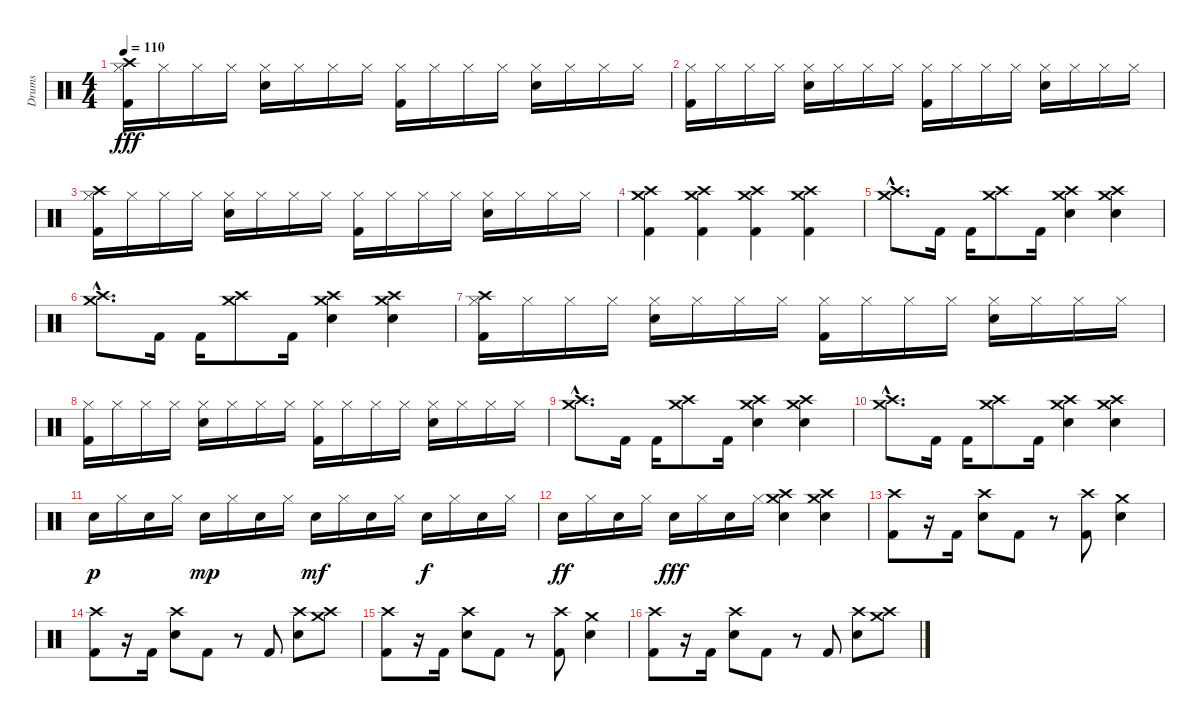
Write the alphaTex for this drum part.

\track ("Drums" "Drums") {instrument percussion}
\staff {score}
\articulation defaults
\ts (4 4)
\tempo 110
\clef neutral
\ks c
("Crash high (hit)" "Hi-Hat (closed)" "Kick (hit) 2").16{dy fff} "Hi-Hat (closed)".16 "Hi-Hat (closed)".16 "Hi-Hat (closed)".16 ("Hi-Hat (closed)" "Electric Snare (hit)").16 "Hi-Hat (closed)".16 "Hi-Hat (closed)".16 "Hi-Hat (closed)".16 ("Hi-Hat (closed)" "Kick (hit) 2").16 "Hi-Hat (closed)".16 "Hi-Hat (closed)".16 "Hi-Hat (closed)".16 ("Hi-Hat (closed)" "Electric Snare (hit)").16 "Hi-Hat (closed)".16 "Hi-Hat (closed)".16 "Hi-Hat (closed)".16 |
("Hi-Hat (closed)" "Kick (hit) 2").16 "Hi-Hat (closed)".16 "Hi-Hat (closed)".16 "Hi-Hat (closed)".16 ("Hi-Hat (closed)" "Electric Snare (hit)").16 "Hi-Hat (closed)".16 "Hi-Hat (closed)".16 "Hi-Hat (closed)".16 ("Hi-Hat (closed)" "Kick (hit) 2").16 "Hi-Hat (closed)".16 "Hi-Hat (closed)".16 "Hi-Hat (closed)".16 ("Hi-Hat (closed)" "Electric Snare (hit)").16 "Hi-Hat (closed)".16 "Hi-Hat (closed)".16 "Hi-Hat (closed)".16 |
("Crash high (hit)" "Hi-Hat (closed)" "Kick (hit) 2").16 "Hi-Hat (closed)".16 "Hi-Hat (closed)".16 "Hi-Hat (closed)".16 ("Hi-Hat (closed)" "Electric Snare (hit)").16 "Hi-Hat (closed)".16 "Hi-Hat (closed)".16 "Hi-Hat (closed)".16 ("Hi-Hat (closed)" "Kick (hit) 2").16 "Hi-Hat (closed)".16 "Hi-Hat (closed)".16 "Hi-Hat (closed)".16 ("Hi-Hat (closed)" "Electric Snare (hit)").16 "Hi-Hat (closed)".16 "Hi-Hat (closed)".16 "Hi-Hat (closed)".16 |
("Crash high (hit)" "Crash medium (hit)" "Kick (hit) 2").4 ("Crash high (hit)" "Crash medium (hit)" "Kick (hit) 2").4 ("Crash high (hit)" "Crash medium (hit)" "Kick (hit) 2").4 ("Crash high (hit)" "Crash medium (hit)" "Kick (hit) 2").4 |
("Crash high (hit)"{hac} "Crash medium (hit)"{hac}).8{d} "Kick (hit) 2".16 "Kick (hit) 2".16 ("Crash high (hit)" "Crash medium (hit)").8 "Kick (hit) 2".16 ("Crash high (hit)" "Crash medium (hit)" "Electric Snare (hit)").4 ("Crash high (hit)" "Crash medium (hit)" "Electric Snare (hit)").4 |
("Crash high (hit)"{hac} "Crash medium (hit)"{hac}).8{d} "Kick (hit) 2".16 "Kick (hit) 2".16 ("Crash high (hit)" "Crash medium (hit)").8 "Kick (hit) 2".16 ("Crash high (hit)" "Crash medium (hit)" "Electric Snare (hit)").4 ("Crash high (hit)" "Crash medium (hit)" "Electric Snare (hit)").4 |
("Crash high (hit)" "Hi-Hat (closed)" "Kick (hit) 2").16 "Hi-Hat (closed)".16 "Hi-Hat (closed)".16 "Hi-Hat (closed)".16 ("Hi-Hat (closed)" "Electric Snare (hit)").16 "Hi-Hat (closed)".16 "Hi-Hat (closed)".16 "Hi-Hat (closed)".16 ("Hi-Hat (closed)" "Kick (hit) 2").16 "Hi-Hat (closed)".16 "Hi-Hat (closed)".16 "Hi-Hat (closed)".16 ("Hi-Hat (closed)" "Electric Snare (hit)").16 "Hi-Hat (closed)".16 "Hi-Hat (closed)".16 "Hi-Hat (closed)".16 |
("Hi-Hat (closed)" "Kick (hit) 2").16 "Hi-Hat (closed)".16 "Hi-Hat (closed)".16 "Hi-Hat (closed)".16 ("Hi-Hat (closed)" "Electric Snare (hit)").16 "Hi-Hat (closed)".16 "Hi-Hat (closed)".16 "Hi-Hat (closed)".16 ("Hi-Hat (closed)" "Kick (hit) 2").16 "Hi-Hat (closed)".16 "Hi-Hat (closed)".16 "Hi-Hat (closed)".16 ("Hi-Hat (closed)" "Electric Snare (hit)").16 "Hi-Hat (closed)".16 "Hi-Hat (closed)".16 "Hi-Hat (closed)".16 |
("Crash high (hit)"{hac} "Crash medium (hit)"{hac}).8{d} "Kick (hit) 2".16 "Kick (hit) 2".16 ("Crash high (hit)" "Crash medium (hit)").8 "Kick (hit) 2".16 ("Crash high (hit)" "Crash medium (hit)" "Electric Snare (hit)").4 ("Crash high (hit)" "Crash medium (hit)" "Electric Snare (hit)").4 |
("Crash high (hit)"{hac} "Crash medium (hit)"{hac}).8{d} "Kick (hit) 2".16 "Kick (hit) 2".16 ("Crash high (hit)" "Crash medium (hit)").8 "Kick (hit) 2".16 ("Crash high (hit)" "Crash medium (hit)" "Electric Snare (hit)").4 ("Crash high (hit)" "Crash medium (hit)" "Electric Snare (hit)").4 |
"Electric Snare (hit)".16{dy p} "Hi-Hat (closed)".16 "Electric Snare (hit)".16 "Hi-Hat (closed)".16 "Electric Snare (hit)".16{dy mp} "Hi-Hat (closed)".16 "Electric Snare (hit)".16 "Hi-Hat (closed)".16 "Electric Snare (hit)".16{dy mf} "Hi-Hat (closed)".16 "Electric Snare (hit)".16 "Hi-Hat (closed)".16 "Electric Snare (hit)".16{dy f} "Hi-Hat (closed)".16 "Electric Snare (hit)".16 "Hi-Hat (closed)".16 |
"Electric Snare (hit)".16{dy ff} "Hi-Hat (closed)".16 "Electric Snare (hit)".16 "Hi-Hat (closed)".16 "Electric Snare (hit)".16{dy fff} "Hi-Hat (closed)".16 "Electric Snare (hit)".16 "Hi-Hat (closed)".16 ("Crash high (hit)" "Crash medium (hit)" "Electric Snare (hit)").4 ("Crash high (hit)" "Crash medium (hit)" "Electric Snare (hit)").4 |
("Crash high (hit)" "Kick (hit) 2").8 r.16 "Kick (hit) 2".16 ("Crash high (hit)" "Electric Snare (hit)").8 "Kick (hit) 2".8 r.8 ("Crash high (hit)" "Kick (hit) 2").8 ("Crash medium (hit)" "Electric Snare (hit)").4 |
("Crash high (hit)" "Kick (hit) 2").8 r.16 "Kick (hit) 2".16 ("Crash high (hit)" "Electric Snare (hit)").8 "Kick (hit) 2".8 r.8 "Kick (hit) 2".8 ("Crash high (hit)" "Electric Snare (hit)").8 ("Crash high (hit)" "Crash medium (hit)").8 |
("Crash high (hit)" "Kick (hit) 2").8 r.16 "Kick (hit) 2".16 ("Crash high (hit)" "Electric Snare (hit)").8 "Kick (hit) 2".8 r.8 ("Crash high (hit)" "Kick (hit) 2").8 ("Crash medium (hit)" "Electric Snare (hit)").4 |
("Crash high (hit)" "Kick (hit) 2").8 r.16 "Kick (hit) 2".16 ("Crash high (hit)" "Electric Snare (hit)").8 "Kick (hit) 2".8 r.8 "Kick (hit) 2".8 ("Crash high (hit)" "Electric Snare (hit)").8 ("Crash high (hit)" "Crash medium (hit)").8
